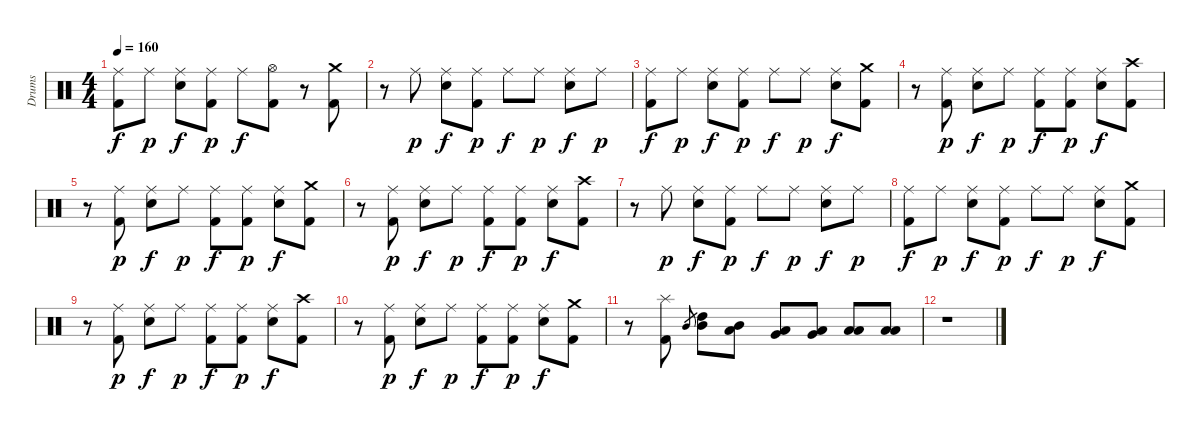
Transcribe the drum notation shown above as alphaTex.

\track ("Drums" "Drums") {instrument percussion}
\staff {score}
\articulation defaults
\ts (4 4)
\tempo 160
\clef neutral
\ks c
("Ride (middle)" "Kick (hit) 2").8{dy f} "Ride (middle)".8{dy p} ("Ride (middle)" "Snare (hit) 2").8{dy f} ("Ride (middle)" "Kick (hit) 2").8{dy p} "Ride (middle)".8{dy f} ("Hi-Hat (open)" "Kick (hit) 2").8 r.8 ("Crash medium (hit)" "Kick (hit) 2").8 |
r.8 "Ride (middle)".8{dy p} ("Ride (middle)" "Snare (hit) 2").8{dy f} ("Ride (middle)" "Kick (hit) 2").8{dy p} "Ride (middle)".8{dy f} "Ride (middle)".8{dy p} ("Ride (middle)" "Snare (hit) 2").8{dy f} "Ride (middle)".8{dy p} |
("Ride (middle)" "Kick (hit) 2").8{dy f} "Ride (middle)".8{dy p} ("Ride (middle)" "Snare (hit) 2").8{dy f} ("Ride (middle)" "Kick (hit) 2").8{dy p} "Ride (middle)".8{dy f} "Ride (middle)".8{dy p} ("Ride (middle)" "Snare (hit) 2").8{dy f} ("Crash medium (hit)" "Kick (hit) 2").8 |
r.8 ("Ride (middle)" "Kick (hit) 2").8{dy p} ("Ride (middle)" "Snare (hit) 2").8{dy f} "Ride (middle)".8{dy p} ("Ride (middle)" "Kick (hit) 2").8{dy f} ("Ride (middle)" "Kick (hit) 2").8{dy p} ("Ride (middle)" "Snare (hit) 2").8{dy f} ("Crash high (hit)" "Kick (hit) 2").8 |
r.8 ("Ride (middle)" "Kick (hit) 2").8{dy p} ("Ride (middle)" "Snare (hit) 2").8{dy f} "Ride (middle)".8{dy p} ("Ride (middle)" "Kick (hit) 2").8{dy f} ("Ride (middle)" "Kick (hit) 2").8{dy p} ("Ride (middle)" "Snare (hit) 2").8{dy f} ("Crash medium (hit)" "Kick (hit) 2").8 |
r.8 ("Ride (middle)" "Kick (hit) 2").8{dy p} ("Ride (middle)" "Snare (hit) 2").8{dy f} "Ride (middle)".8{dy p} ("Ride (middle)" "Kick (hit) 2").8{dy f} ("Ride (middle)" "Kick (hit) 2").8{dy p} ("Ride (middle)" "Snare (hit) 2").8{dy f} ("Crash high (hit)" "Kick (hit) 2").8 |
r.8 "Ride (middle)".8{dy p} ("Ride (middle)" "Snare (hit) 2").8{dy f} ("Ride (middle)" "Kick (hit) 2").8{dy p} "Ride (middle)".8{dy f} "Ride (middle)".8{dy p} ("Ride (middle)" "Snare (hit) 2").8{dy f} "Ride (middle)".8{dy p} |
("Ride (middle)" "Kick (hit) 2").8{dy f} "Ride (middle)".8{dy p} ("Ride (middle)" "Snare (hit) 2").8{dy f} ("Ride (middle)" "Kick (hit) 2").8{dy p} "Ride (middle)".8{dy f} "Ride (middle)".8{dy p} ("Ride (middle)" "Snare (hit) 2").8{dy f} ("Crash medium (hit)" "Kick (hit) 2").8 |
r.8 ("Ride (middle)" "Kick (hit) 2").8{dy p} ("Ride (middle)" "Snare (hit) 2").8{dy f} "Ride (middle)".8{dy p} ("Ride (middle)" "Kick (hit) 2").8{dy f} ("Ride (middle)" "Kick (hit) 2").8{dy p} ("Ride (middle)" "Snare (hit) 2").8{dy f} ("Crash high (hit)" "Kick (hit) 2").8 |
r.8 ("Ride (middle)" "Kick (hit) 2").8{dy p} ("Ride (middle)" "Snare (hit) 2").8{dy f} "Ride (middle)".8{dy p} ("Ride (middle)" "Kick (hit) 2").8{dy f} ("Ride (middle)" "Kick (hit) 2").8{dy p} ("Ride (middle)" "Snare (hit) 2").8{dy f} ("Crash medium (hit)" "Kick (hit) 2").8 |
r.8 ("Splash (hit)" "Kick (hit) 2").8 "Mid Tom (hit)".8{gr} ("High Tom (hit)" "Mid Tom (hit)").8 ("Mid Tom (hit)" "Low Tom (hit)").8 ("Low Tom (hit)" "Very Low Tom (hit)").8 ("Very Low Tom (hit)" "Low Floor Tom (hit)").8 ("Low Floor Tom (hit)" "Low Floor Tom (hit)").8 ("Low Floor Tom (hit)" "Low Floor Tom (hit)").8 |
r.1
